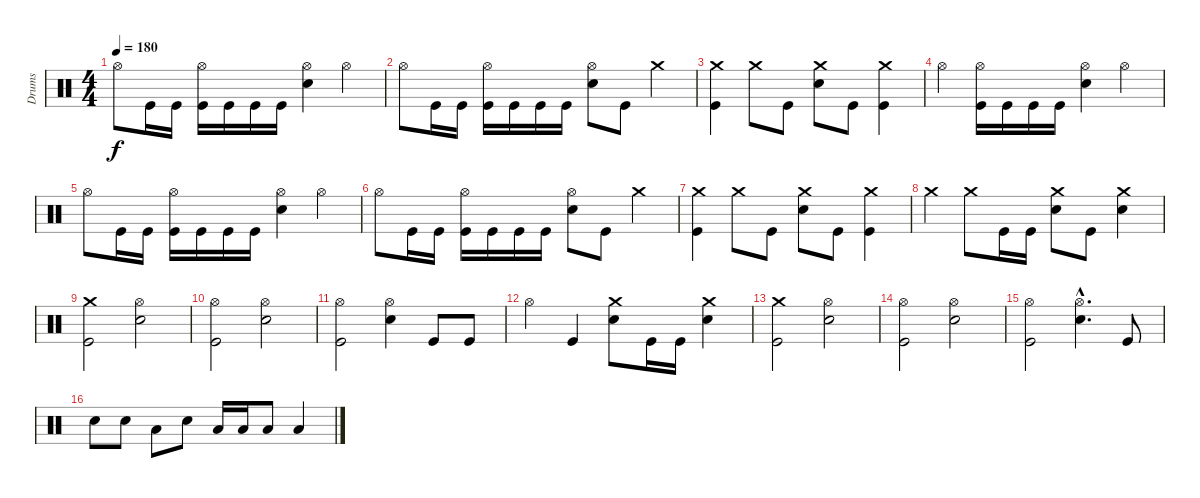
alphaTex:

\track ("Drums" "Drums") {instrument percussion}
\staff {score}
\articulation defaults
\ts (4 4)
\tempo 180
\clef neutral
\ks c "Hi-Hat (open)".8{dy f} "Kick (hit)".16 "Kick (hit)".16
("Hi-Hat (open)" "Kick (hit)").16 "Kick (hit)".16 "Kick (hit)".16 "Kick (hit)".16 ("Hi-Hat (open)" "Electric Snare (hit)").4 "Hi-Hat (open)".4 |
"Hi-Hat (open)".8 "Kick (hit)".16 "Kick (hit)".16 ("Hi-Hat (open)" "Kick (hit)").16 "Kick (hit)".16 "Kick (hit)".16 "Kick (hit)".16 ("Hi-Hat (open)" "Electric Snare (hit)").8 "Kick (hit)".8 "Crash medium (hit)".4 |
("Crash medium (hit)" "Kick (hit)").4 "Crash medium (hit)".8 "Kick (hit)".8 ("Crash medium (hit)" "Electric Snare (hit)").8 "Kick (hit)".8 ("Crash medium (hit)" "Kick (hit)").4 |
"Hi-Hat (open)".4 ("Hi-Hat (open)" "Kick (hit)").16 "Kick (hit)".16 "Kick (hit)".16 "Kick (hit)".16 ("Hi-Hat (open)" "Electric Snare (hit)").4 "Hi-Hat (open)".4 |
"Hi-Hat (open)".8 "Kick (hit)".16 "Kick (hit)".16 ("Hi-Hat (open)" "Kick (hit)").16 "Kick (hit)".16 "Kick (hit)".16 "Kick (hit)".16 ("Hi-Hat (open)" "Electric Snare (hit)").4 "Hi-Hat (open)".4 |
"Hi-Hat (open)".8 "Kick (hit)".16 "Kick (hit)".16 ("Hi-Hat (open)" "Kick (hit)").16 "Kick (hit)".16 "Kick (hit)".16 "Kick (hit)".16 ("Hi-Hat (open)" "Electric Snare (hit)").8 "Kick (hit)".8 "Crash medium (hit)".4 |
("Crash medium (hit)" "Kick (hit)").4 "Crash medium (hit)".8 "Kick (hit)".8 ("Crash medium (hit)" "Electric Snare (hit)").8 "Kick (hit)".8 ("Crash medium (hit)" "Kick (hit)").4 |
"Crash medium (hit)".4 "Crash medium (hit)".8 "Kick (hit)".16 "Kick (hit)".16 ("Crash medium (hit)" "Electric Snare (hit)").8 "Kick (hit)".8 ("Crash medium (hit)" "Electric Snare (hit)").4 |
("Crash medium (hit)" "Kick (hit)").2 ("Hi-Hat (open)" "Electric Snare (hit)").2 |
("Hi-Hat (open)" "Kick (hit)").2 ("Hi-Hat (open)" "Electric Snare (hit)").2 |
("Hi-Hat (open)" "Kick (hit)").2 ("Hi-Hat (open)" "Electric Snare (hit)").4 "Kick (hit)".8 "Kick (hit)".8 |
"Hi-Hat (open)".4 "Kick (hit)".4 ("Crash medium (hit)" "Electric Snare (hit)").8 "Kick (hit)".16 "Kick (hit)".16 ("Crash medium (hit)" "Electric Snare (hit)").4 |
("Crash medium (hit)" "Kick (hit)").2 ("Hi-Hat (open)" "Electric Snare (hit)").2 |
("Hi-Hat (open)" "Kick (hit)").2 ("Hi-Hat (open)" "Electric Snare (hit)").2 |
("Hi-Hat (open)" "Kick (hit)").2 ("Hi-Hat (open)"{hac} "Electric Snare (hit)"{hac}).4{d} "Kick (hit)".8 |
"Electric Snare (hit)".8 "Electric Snare (hit)".8 "Low Tom (hit)".8 "Electric Snare (hit)".8 "Low Tom (hit)".16 "Low Tom (hit)".16 "Low Tom (hit)".8 "Low Tom (hit)".4
